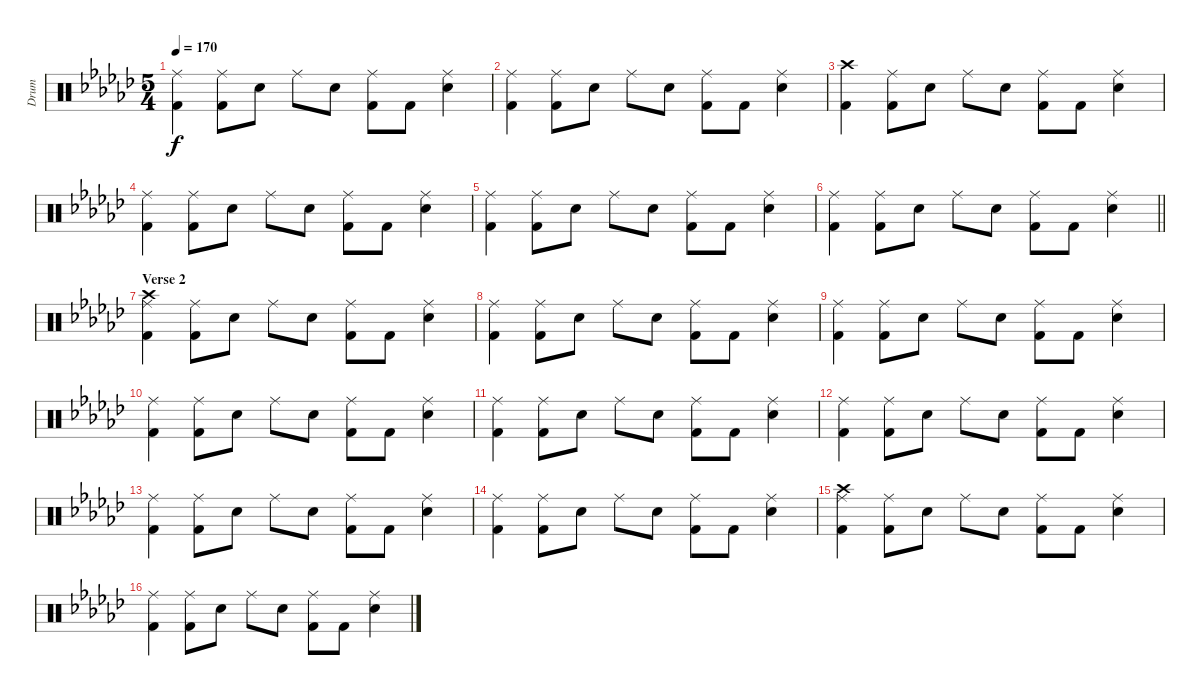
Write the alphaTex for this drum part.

\track ("Drum" "Drum") {instrument percussion}
\staff {score}
\articulation defaults
\ts (5 4)
\tempo 170
\clef neutral
\ks gb
("Ride (middle)" "Kick (hit) 2").4{dy f} ("Ride (middle)" "Kick (hit) 2").8 "Snare (hit) 2".8 "Ride (middle)".8 "Snare (hit) 2".8 ("Ride (middle)" "Kick (hit) 2").8 "Kick (hit) 2".8 ("Ride (middle)" "Snare (hit) 2").4 |
("Ride (middle)" "Kick (hit) 2").4 ("Ride (middle)" "Kick (hit) 2").8 "Snare (hit) 2".8 "Ride (middle)".8 "Snare (hit) 2".8 ("Ride (middle)" "Kick (hit) 2").8 "Kick (hit) 2".8 ("Ride (middle)" "Snare (hit) 2").4 |
("Crash high (hit)" "Kick (hit) 2").4 ("Ride (middle)" "Kick (hit) 2").8 "Snare (hit) 2".8 "Ride (middle)".8 "Snare (hit) 2".8 ("Ride (middle)" "Kick (hit) 2").8 "Kick (hit) 2".8 ("Ride (middle)" "Snare (hit) 2").4 |
("Ride (middle)" "Kick (hit) 2").4 ("Ride (middle)" "Kick (hit) 2").8 "Snare (hit) 2".8 "Ride (middle)".8 "Snare (hit) 2".8 ("Ride (middle)" "Kick (hit) 2").8 "Kick (hit) 2".8 ("Ride (middle)" "Snare (hit) 2").4 |
("Ride (middle)" "Kick (hit) 2").4 ("Ride (middle)" "Kick (hit) 2").8 "Snare (hit) 2".8 "Ride (middle)".8 "Snare (hit) 2".8 ("Ride (middle)" "Kick (hit) 2").8 "Kick (hit) 2".8 ("Ride (middle)" "Snare (hit) 2").4 |
\barLineRight lightlight
("Ride (middle)" "Kick (hit) 2").4 ("Ride (middle)" "Kick (hit) 2").8 "Snare (hit) 2".8 "Ride (middle)".8 "Snare (hit) 2".8 ("Ride (middle)" "Kick (hit) 2").8 "Kick (hit) 2".8 ("Ride (middle)" "Snare (hit) 2").4 |
\section ("" "Verse 2")
("Crash high (hit)" "Ride (middle)" "Kick (hit) 2").4 ("Ride (middle)" "Kick (hit) 2").8 "Snare (hit) 2".8 "Ride (middle)".8 "Snare (hit) 2".8 ("Ride (middle)" "Kick (hit) 2").8 "Kick (hit) 2".8 ("Ride (middle)" "Snare (hit) 2").4 |
("Ride (middle)" "Kick (hit) 2").4 ("Ride (middle)" "Kick (hit) 2").8 "Snare (hit) 2".8 "Ride (middle)".8 "Snare (hit) 2".8 ("Ride (middle)" "Kick (hit) 2").8 "Kick (hit) 2".8 ("Ride (middle)" "Snare (hit) 2").4 |
("Ride (middle)" "Kick (hit) 2").4 ("Ride (middle)" "Kick (hit) 2").8 "Snare (hit) 2".8 "Ride (middle)".8 "Snare (hit) 2".8 ("Ride (middle)" "Kick (hit) 2").8 "Kick (hit) 2".8 ("Ride (middle)" "Snare (hit) 2").4 |
("Ride (middle)" "Kick (hit) 2").4 ("Ride (middle)" "Kick (hit) 2").8 "Snare (hit) 2".8 "Ride (middle)".8 "Snare (hit) 2".8 ("Ride (middle)" "Kick (hit) 2").8 "Kick (hit) 2".8 ("Ride (middle)" "Snare (hit) 2").4 |
("Ride (middle)" "Kick (hit) 2").4 ("Ride (middle)" "Kick (hit) 2").8 "Snare (hit) 2".8 "Ride (middle)".8 "Snare (hit) 2".8 ("Ride (middle)" "Kick (hit) 2").8 "Kick (hit) 2".8 ("Ride (middle)" "Snare (hit) 2").4 |
("Ride (middle)" "Kick (hit) 2").4 ("Ride (middle)" "Kick (hit) 2").8 "Snare (hit) 2".8 "Ride (middle)".8 "Snare (hit) 2".8 ("Ride (middle)" "Kick (hit) 2").8 "Kick (hit) 2".8 ("Ride (middle)" "Snare (hit) 2").4 |
("Ride (middle)" "Kick (hit) 2").4 ("Ride (middle)" "Kick (hit) 2").8 "Snare (hit) 2".8 "Ride (middle)".8 "Snare (hit) 2".8 ("Ride (middle)" "Kick (hit) 2").8 "Kick (hit) 2".8 ("Ride (middle)" "Snare (hit) 2").4 |
("Ride (middle)" "Kick (hit) 2").4 ("Ride (middle)" "Kick (hit) 2").8 "Snare (hit) 2".8 "Ride (middle)".8 "Snare (hit) 2".8 ("Ride (middle)" "Kick (hit) 2").8 "Kick (hit) 2".8 ("Ride (middle)" "Snare (hit) 2").4 |
("Crash high (hit)" "Ride (middle)" "Kick (hit) 2").4 ("Ride (middle)" "Kick (hit) 2").8 "Snare (hit) 2".8 "Ride (middle)".8 "Snare (hit) 2".8 ("Ride (middle)" "Kick (hit) 2").8 "Kick (hit) 2".8 ("Ride (middle)" "Snare (hit) 2").4 |
("Ride (middle)" "Kick (hit) 2").4 ("Ride (middle)" "Kick (hit) 2").8 "Snare (hit) 2".8 "Ride (middle)".8 "Snare (hit) 2".8 ("Ride (middle)" "Kick (hit) 2").8 "Kick (hit) 2".8 ("Ride (middle)" "Snare (hit) 2").4
